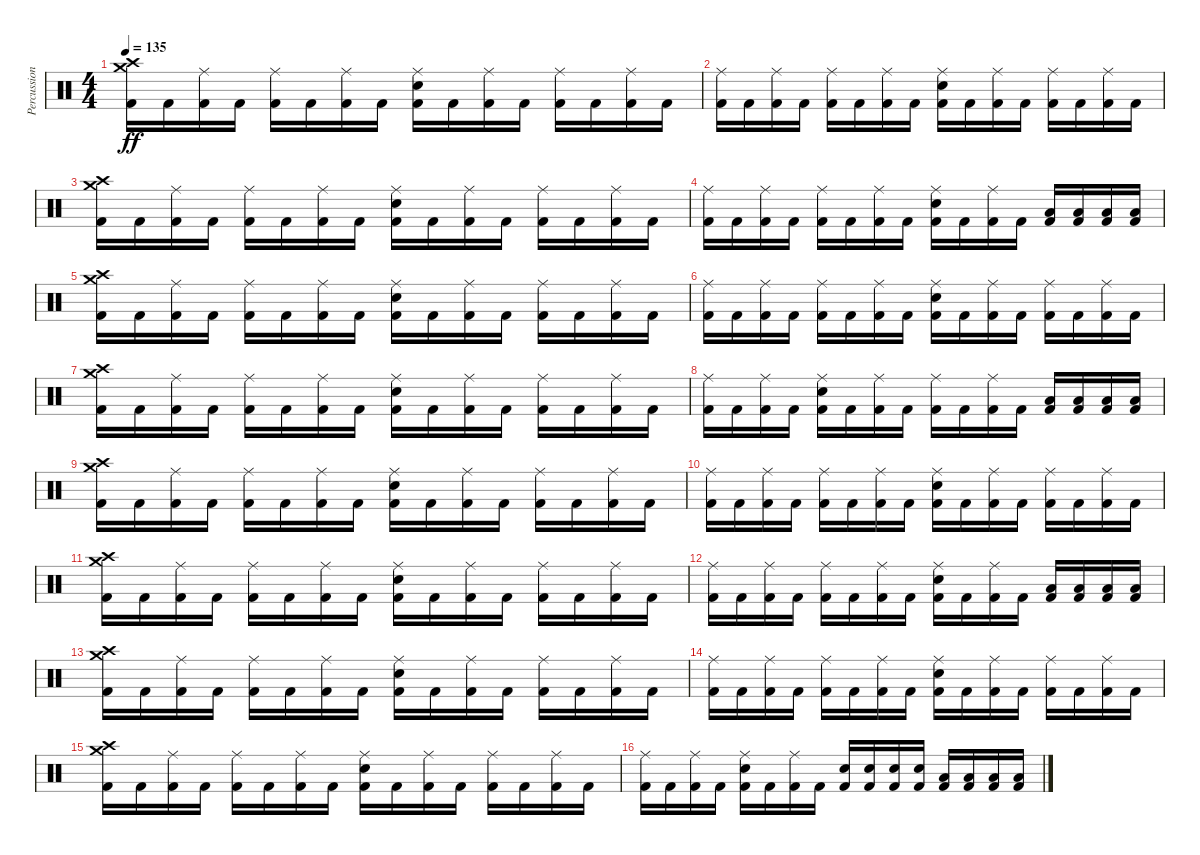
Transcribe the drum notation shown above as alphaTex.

\track ("Percussion" "Percussion") {instrument percussion}
\staff {score}
\articulation defaults
\ts (4 4)
\tempo 135
\clef neutral
\ks c
("Kick (hit) 2" "Crash medium (hit)" "Crash high (hit)").16{dy ff} "Kick (hit) 2".16 ("Kick (hit) 2" "Ride (middle)").16 "Kick (hit) 2".16 ("Kick (hit) 2" "Ride (middle)").16 "Kick (hit) 2".16 ("Kick (hit) 2" "Ride (middle)").16 "Kick (hit) 2".16 ("Kick (hit) 2" "Electric Snare (hit)" "Ride (middle)").16 "Kick (hit) 2".16 ("Kick (hit) 2" "Ride (middle)").16 "Kick (hit) 2".16 ("Kick (hit) 2" "Ride (middle)").16 "Kick (hit) 2".16 ("Kick (hit) 2" "Ride (middle)").16 "Kick (hit) 2".16 |
("Kick (hit) 2" "Ride (middle)").16 "Kick (hit) 2".16 ("Kick (hit) 2" "Ride (middle)").16 "Kick (hit) 2".16 ("Kick (hit) 2" "Ride (middle)").16 "Kick (hit) 2".16 ("Kick (hit) 2" "Ride (middle)").16 "Kick (hit) 2".16 ("Kick (hit) 2" "Electric Snare (hit)" "Ride (middle)").16 "Kick (hit) 2".16 ("Kick (hit) 2" "Ride (middle)").16 "Kick (hit) 2".16 ("Kick (hit) 2" "Ride (middle)").16 "Kick (hit) 2".16 ("Kick (hit) 2" "Ride (middle)").16 "Kick (hit) 2".16 |
("Kick (hit) 2" "Crash medium (hit)" "Crash high (hit)").16 "Kick (hit) 2".16 ("Kick (hit) 2" "Ride (middle)").16 "Kick (hit) 2".16 ("Kick (hit) 2" "Ride (middle)").16 "Kick (hit) 2".16 ("Kick (hit) 2" "Ride (middle)").16 "Kick (hit) 2".16 ("Kick (hit) 2" "Electric Snare (hit)" "Ride (middle)").16 "Kick (hit) 2".16 ("Kick (hit) 2" "Ride (middle)").16 "Kick (hit) 2".16 ("Kick (hit) 2" "Ride (middle)").16 "Kick (hit) 2".16 ("Kick (hit) 2" "Ride (middle)").16 "Kick (hit) 2".16 |
("Kick (hit) 2" "Ride (middle)").16 "Kick (hit) 2".16 ("Kick (hit) 2" "Ride (middle)").16 "Kick (hit) 2".16 ("Kick (hit) 2" "Ride (middle)").16 "Kick (hit) 2".16 ("Kick (hit) 2" "Ride (middle)").16 "Kick (hit) 2".16 ("Kick (hit) 2" "Electric Snare (hit)" "Ride (middle)").16 "Kick (hit) 2".16 ("Kick (hit) 2" "Ride (middle)").16 "Kick (hit) 2".16 ("Kick (hit) 2" "Low Tom (hit)").16 ("Kick (hit) 2" "Low Tom (hit)").16 ("Kick (hit) 2" "Low Tom (hit)").16 ("Kick (hit) 2" "Low Tom (hit)").16 |
("Kick (hit) 2" "Crash medium (hit)" "Crash high (hit)").16 "Kick (hit) 2".16 ("Kick (hit) 2" "Ride (middle)").16 "Kick (hit) 2".16 ("Kick (hit) 2" "Ride (middle)").16 "Kick (hit) 2".16 ("Kick (hit) 2" "Ride (middle)").16 "Kick (hit) 2".16 ("Kick (hit) 2" "Electric Snare (hit)" "Ride (middle)").16 "Kick (hit) 2".16 ("Kick (hit) 2" "Ride (middle)").16 "Kick (hit) 2".16 ("Kick (hit) 2" "Ride (middle)").16 "Kick (hit) 2".16 ("Kick (hit) 2" "Ride (middle)").16 "Kick (hit) 2".16 |
("Kick (hit) 2" "Ride (middle)").16 "Kick (hit) 2".16 ("Kick (hit) 2" "Ride (middle)").16 "Kick (hit) 2".16 ("Kick (hit) 2" "Ride (middle)").16 "Kick (hit) 2".16 ("Kick (hit) 2" "Ride (middle)").16 "Kick (hit) 2".16 ("Kick (hit) 2" "Electric Snare (hit)" "Ride (middle)").16 "Kick (hit) 2".16 ("Kick (hit) 2" "Ride (middle)").16 "Kick (hit) 2".16 ("Kick (hit) 2" "Ride (middle)").16 "Kick (hit) 2".16 ("Kick (hit) 2" "Ride (middle)").16 "Kick (hit) 2".16 |
("Kick (hit) 2" "Crash medium (hit)" "Crash high (hit)").16 "Kick (hit) 2".16 ("Kick (hit) 2" "Ride (middle)").16 "Kick (hit) 2".16 ("Kick (hit) 2" "Ride (middle)").16 "Kick (hit) 2".16 ("Kick (hit) 2" "Ride (middle)").16 "Kick (hit) 2".16 ("Kick (hit) 2" "Electric Snare (hit)" "Ride (middle)").16 "Kick (hit) 2".16 ("Kick (hit) 2" "Ride (middle)").16 "Kick (hit) 2".16 ("Kick (hit) 2" "Ride (middle)").16 "Kick (hit) 2".16 ("Kick (hit) 2" "Ride (middle)").16 "Kick (hit) 2".16 |
("Kick (hit) 2" "Ride (middle)").16 "Kick (hit) 2".16 ("Kick (hit) 2" "Ride (middle)").16 "Kick (hit) 2".16 ("Kick (hit) 2" "Electric Snare (hit)" "Ride (middle)").16 "Kick (hit) 2".16 ("Kick (hit) 2" "Ride (middle)").16 "Kick (hit) 2".16 ("Kick (hit) 2" "Ride (middle)").16 "Kick (hit) 2".16 ("Kick (hit) 2" "Ride (middle)").16 "Kick (hit) 2".16 ("Kick (hit) 2" "Low Tom (hit)").16 ("Kick (hit) 2" "Low Tom (hit)").16 ("Kick (hit) 2" "Low Tom (hit)").16 ("Kick (hit) 2" "Low Tom (hit)").16 |
("Kick (hit) 2" "Crash medium (hit)" "Crash high (hit)").16 "Kick (hit) 2".16 ("Kick (hit) 2" "Ride (middle)").16 "Kick (hit) 2".16 ("Kick (hit) 2" "Ride (middle)").16 "Kick (hit) 2".16 ("Kick (hit) 2" "Ride (middle)").16 "Kick (hit) 2".16 ("Kick (hit) 2" "Electric Snare (hit)" "Ride (middle)").16 "Kick (hit) 2".16 ("Kick (hit) 2" "Ride (middle)").16 "Kick (hit) 2".16 ("Kick (hit) 2" "Ride (middle)").16 "Kick (hit) 2".16 ("Kick (hit) 2" "Ride (middle)").16 "Kick (hit) 2".16 |
("Kick (hit) 2" "Ride (middle)").16 "Kick (hit) 2".16 ("Kick (hit) 2" "Ride (middle)").16 "Kick (hit) 2".16 ("Kick (hit) 2" "Ride (middle)").16 "Kick (hit) 2".16 ("Kick (hit) 2" "Ride (middle)").16 "Kick (hit) 2".16 ("Kick (hit) 2" "Electric Snare (hit)" "Ride (middle)").16 "Kick (hit) 2".16 ("Kick (hit) 2" "Ride (middle)").16 "Kick (hit) 2".16 ("Kick (hit) 2" "Ride (middle)").16 "Kick (hit) 2".16 ("Kick (hit) 2" "Ride (middle)").16 "Kick (hit) 2".16 |
("Kick (hit) 2" "Crash medium (hit)" "Crash high (hit)").16 "Kick (hit) 2".16 ("Kick (hit) 2" "Ride (middle)").16 "Kick (hit) 2".16 ("Kick (hit) 2" "Ride (middle)").16 "Kick (hit) 2".16 ("Kick (hit) 2" "Ride (middle)").16 "Kick (hit) 2".16 ("Kick (hit) 2" "Electric Snare (hit)" "Ride (middle)").16 "Kick (hit) 2".16 ("Kick (hit) 2" "Ride (middle)").16 "Kick (hit) 2".16 ("Kick (hit) 2" "Ride (middle)").16 "Kick (hit) 2".16 ("Kick (hit) 2" "Ride (middle)").16 "Kick (hit) 2".16 |
("Kick (hit) 2" "Ride (middle)").16 "Kick (hit) 2".16 ("Kick (hit) 2" "Ride (middle)").16 "Kick (hit) 2".16 ("Kick (hit) 2" "Ride (middle)").16 "Kick (hit) 2".16 ("Kick (hit) 2" "Ride (middle)").16 "Kick (hit) 2".16 ("Kick (hit) 2" "Electric Snare (hit)" "Ride (middle)").16 "Kick (hit) 2".16 ("Kick (hit) 2" "Ride (middle)").16 "Kick (hit) 2".16 ("Kick (hit) 2" "Low Tom (hit)").16 ("Kick (hit) 2" "Low Tom (hit)").16 ("Kick (hit) 2" "Low Tom (hit)").16 ("Kick (hit) 2" "Low Tom (hit)").16 |
("Kick (hit) 2" "Crash medium (hit)" "Crash high (hit)").16 "Kick (hit) 2".16 ("Kick (hit) 2" "Ride (middle)").16 "Kick (hit) 2".16 ("Kick (hit) 2" "Ride (middle)").16 "Kick (hit) 2".16 ("Kick (hit) 2" "Ride (middle)").16 "Kick (hit) 2".16 ("Kick (hit) 2" "Electric Snare (hit)" "Ride (middle)").16 "Kick (hit) 2".16 ("Kick (hit) 2" "Ride (middle)").16 "Kick (hit) 2".16 ("Kick (hit) 2" "Ride (middle)").16 "Kick (hit) 2".16 ("Kick (hit) 2" "Ride (middle)").16 "Kick (hit) 2".16 |
("Kick (hit) 2" "Ride (middle)").16 "Kick (hit) 2".16 ("Kick (hit) 2" "Ride (middle)").16 "Kick (hit) 2".16 ("Kick (hit) 2" "Ride (middle)").16 "Kick (hit) 2".16 ("Kick (hit) 2" "Ride (middle)").16 "Kick (hit) 2".16 ("Kick (hit) 2" "Electric Snare (hit)" "Ride (middle)").16 "Kick (hit) 2".16 ("Kick (hit) 2" "Ride (middle)").16 "Kick (hit) 2".16 ("Kick (hit) 2" "Ride (middle)").16 "Kick (hit) 2".16 ("Kick (hit) 2" "Ride (middle)").16 "Kick (hit) 2".16 |
("Kick (hit) 2" "Crash medium (hit)" "Crash high (hit)").16 "Kick (hit) 2".16 ("Kick (hit) 2" "Ride (middle)").16 "Kick (hit) 2".16 ("Kick (hit) 2" "Ride (middle)").16 "Kick (hit) 2".16 ("Kick (hit) 2" "Ride (middle)").16 "Kick (hit) 2".16 ("Kick (hit) 2" "Electric Snare (hit)" "Ride (middle)").16 "Kick (hit) 2".16 ("Kick (hit) 2" "Ride (middle)").16 "Kick (hit) 2".16 ("Kick (hit) 2" "Ride (middle)").16 "Kick (hit) 2".16 ("Kick (hit) 2" "Ride (middle)").16 "Kick (hit) 2".16 |
("Kick (hit) 2" "Ride (middle)").16 "Kick (hit) 2".16 ("Kick (hit) 2" "Ride (middle)").16 "Kick (hit) 2".16 ("Kick (hit) 2" "Electric Snare (hit)" "Ride (middle)").16 "Kick (hit) 2".16 ("Kick (hit) 2" "Ride (middle)").16 "Kick (hit) 2".16 ("Kick (hit) 2" "Electric Snare (hit)").16 ("Kick (hit) 2" "Electric Snare (hit)").16 ("Kick (hit) 2" "Electric Snare (hit)").16 ("Kick (hit) 2" "Electric Snare (hit)").16 ("Kick (hit) 2" "Low Tom (hit)").16 ("Kick (hit) 2" "Low Tom (hit)").16 ("Kick (hit) 2" "Low Tom (hit)").16 ("Kick (hit) 2" "Low Tom (hit)").16
